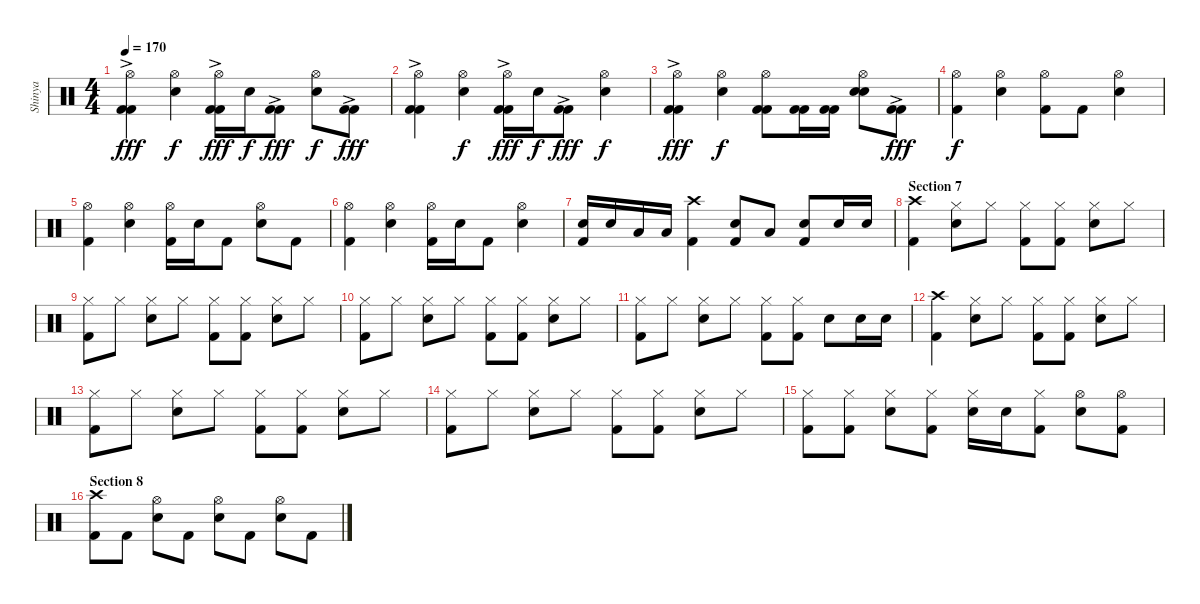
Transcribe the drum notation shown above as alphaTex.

\track ("Shinya" "Shinya") {instrument percussion}
\staff {score}
\articulation defaults
\ts (4 4)
\tempo 170
\clef neutral
\ks c
("Hi-Hat (open)" "Kick (hit) 2"{ac} "Kick (hit) 2").4{dy fff} ("Hi-Hat (open)" "Snare (hit) 2").4{dy f} ("Hi-Hat (open)" "Kick (hit) 2"{ac} "Kick (hit) 2").16{dy fff} "Snare (hit) 2".16{dy f} ("Kick (hit) 2"{ac} "Kick (hit) 2").8{dy fff} ("Hi-Hat (open)" "Snare (hit) 2").8{dy f} ("Kick (hit) 2"{ac} "Kick (hit) 2").8{dy fff} |
("Hi-Hat (open)" "Kick (hit) 2"{ac} "Kick (hit) 2").4 ("Hi-Hat (open)" "Snare (hit) 2").4{dy f} ("Hi-Hat (open)" "Kick (hit) 2"{ac} "Kick (hit) 2").16{dy fff} "Snare (hit) 2".16{dy f} ("Kick (hit) 2"{ac} "Kick (hit) 2").8{dy fff} ("Hi-Hat (open)" "Snare (hit) 2").4{dy f} |
("Hi-Hat (open)" "Kick (hit) 2"{ac} "Kick (hit) 2").4{dy fff} ("Hi-Hat (open)" "Snare (hit) 2").4{dy f} ("Hi-Hat (open)" "Kick (hit) 2" "Kick (hit) 2").8 ("Kick (hit) 2" "Kick (hit) 2").16 ("Kick (hit) 2" "Kick (hit) 2").16 ("Hi-Hat (open)" "Snare (hit) 2" "Snare (hit) 2").8 ("Kick (hit) 2"{ac} "Kick (hit) 2").8{dy fff} |
("Hi-Hat (open)" "Kick (hit) 2").4{dy f} ("Hi-Hat (open)" "Snare (hit) 2").4 ("Hi-Hat (open)" "Kick (hit) 2").8 "Kick (hit) 2".8 ("Hi-Hat (open)" "Snare (hit) 2").4 |
("Hi-Hat (open)" "Kick (hit) 2").4 ("Hi-Hat (open)" "Snare (hit) 2").4 ("Hi-Hat (open)" "Kick (hit) 2").16 "Snare (hit) 2".16 "Kick (hit) 2".8 ("Hi-Hat (open)" "Snare (hit) 2").8 "Kick (hit) 2".8 |
("Hi-Hat (open)" "Kick (hit) 2").4 ("Hi-Hat (open)" "Snare (hit) 2").4 ("Hi-Hat (open)" "Kick (hit) 2").16 "Snare (hit) 2".16 "Kick (hit) 2".8 ("Hi-Hat (open)" "Snare (hit) 2").4 |
("Snare (hit) 2" "Kick (hit) 2").16 "Snare (hit) 2".16 "Low Tom (hit)".16 "Low Floor Tom (hit)".16 ("Crash high (hit)" "Kick (hit) 2").4 ("Snare (hit) 2" "Kick (hit) 2").8 "Low Floor Tom (hit)".8 ("Snare (hit) 2" "Kick (hit) 2").8 "Snare (hit) 2".16 "Snare (hit) 2".16 |
\section ("" "Section 7")
("Crash high (hit)" "Kick (hit) 2").4 ("Hi-Hat (closed)" "Snare (hit) 2").8 "Hi-Hat (closed)".8 ("Hi-Hat (closed)" "Kick (hit) 2").8 ("Hi-Hat (closed)" "Kick (hit) 2").8 ("Hi-Hat (closed)" "Snare (hit) 2").8 "Hi-Hat (closed)".8 |
("Hi-Hat (closed)" "Kick (hit) 2").8 "Hi-Hat (closed)".8 ("Hi-Hat (closed)" "Snare (hit) 2").8 "Hi-Hat (closed)".8 ("Hi-Hat (closed)" "Kick (hit) 2").8 ("Hi-Hat (closed)" "Kick (hit) 2").8 ("Hi-Hat (closed)" "Snare (hit) 2").8 "Hi-Hat (closed)".8 |
("Hi-Hat (closed)" "Kick (hit) 2").8 "Hi-Hat (closed)".8 ("Hi-Hat (closed)" "Snare (hit) 2").8 "Hi-Hat (closed)".8 ("Hi-Hat (closed)" "Kick (hit) 2").8 ("Hi-Hat (closed)" "Kick (hit) 2").8 ("Hi-Hat (closed)" "Snare (hit) 2").8 "Hi-Hat (closed)".8 |
("Hi-Hat (closed)" "Kick (hit) 2").8 "Hi-Hat (closed)".8 ("Hi-Hat (closed)" "Snare (hit) 2").8 "Hi-Hat (closed)".8 ("Hi-Hat (closed)" "Kick (hit) 2").8 ("Hi-Hat (closed)" "Kick (hit) 2").8 "Snare (hit) 2".8 "Snare (hit) 2".16 "Snare (hit) 2".16 |
("Crash high (hit)" "Kick (hit) 2").4 ("Hi-Hat (closed)" "Snare (hit) 2").8 "Hi-Hat (closed)".8 ("Hi-Hat (closed)" "Kick (hit) 2").8 ("Hi-Hat (closed)" "Kick (hit) 2").8 ("Hi-Hat (closed)" "Snare (hit) 2").8 "Hi-Hat (closed)".8 |
("Hi-Hat (closed)" "Kick (hit) 2").8 "Hi-Hat (closed)".8 ("Hi-Hat (closed)" "Snare (hit) 2").8 "Hi-Hat (closed)".8 ("Hi-Hat (closed)" "Kick (hit) 2").8 ("Hi-Hat (closed)" "Kick (hit) 2").8 ("Hi-Hat (closed)" "Snare (hit) 2").8 "Hi-Hat (closed)".8 |
("Hi-Hat (closed)" "Kick (hit) 2").8 "Hi-Hat (closed)".8 ("Hi-Hat (closed)" "Snare (hit) 2").8 "Hi-Hat (closed)".8 ("Hi-Hat (closed)" "Kick (hit) 2").8 ("Hi-Hat (closed)" "Kick (hit) 2").8 ("Hi-Hat (closed)" "Snare (hit) 2").8 "Hi-Hat (closed)".8 |
("Hi-Hat (closed)" "Kick (hit) 2").8 ("Hi-Hat (closed)" "Kick (hit) 2").8 ("Hi-Hat (closed)" "Snare (hit) 2").8 ("Hi-Hat (closed)" "Kick (hit) 2").8 ("Hi-Hat (closed)" "Snare (hit) 2").16 "Snare (hit) 2".16 ("Hi-Hat (closed)" "Kick (hit) 2").8 ("Hi-Hat (open)" "Snare (hit) 2").8 ("Hi-Hat (open)" "Kick (hit) 2").8 |
\section ("" "Section 8")
("Crash high (hit)" "Kick (hit) 2").8 "Kick (hit) 2".8 ("Hi-Hat (open)" "Snare (hit) 2").8 "Kick (hit) 2".8 ("Hi-Hat (open)" "Snare (hit) 2").8 "Kick (hit) 2".8 ("Hi-Hat (open)" "Snare (hit) 2").8 "Kick (hit) 2".8
